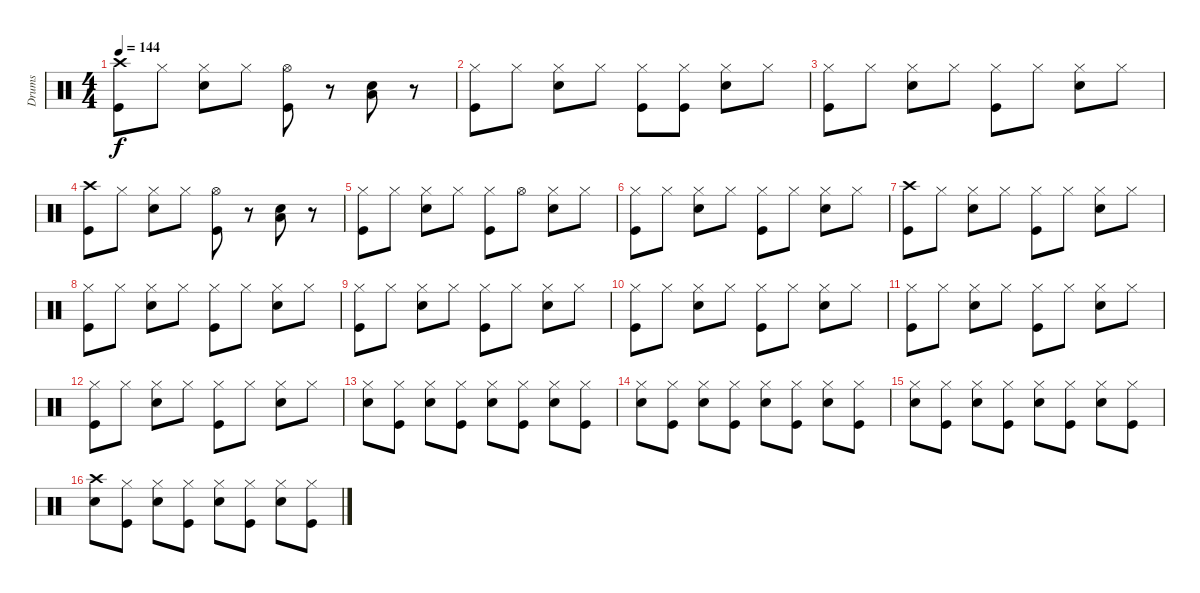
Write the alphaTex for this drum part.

\track ("Drums" "Drums") {instrument percussion}
\staff {score}
\articulation defaults
\ts (4 4)
\tempo 144
\clef neutral
\ks c
("Crash high (hit)" "Kick (hit)").8{dy f} "Hi-Hat (closed)".8 ("Hi-Hat (closed)" "Snare (hit) 2").8 "Hi-Hat (closed)".8 ("Hi-Hat (open)" "Kick (hit)").8 r.8 ("Snare (hit) 2" "Low Floor Tom (hit)").8 r.8 |
("Hi-Hat (closed)" "Kick (hit)").8 "Hi-Hat (closed)".8 ("Hi-Hat (closed)" "Snare (hit) 2").8 "Hi-Hat (closed)".8 ("Hi-Hat (closed)" "Kick (hit)").8 ("Hi-Hat (closed)" "Kick (hit)").8 ("Hi-Hat (closed)" "Snare (hit) 2").8 "Hi-Hat (closed)".8 |
("Hi-Hat (closed)" "Kick (hit)").8 "Hi-Hat (closed)".8 ("Hi-Hat (closed)" "Snare (hit) 2").8 "Hi-Hat (closed)".8 ("Hi-Hat (closed)" "Kick (hit)").8 "Hi-Hat (closed)".8 ("Hi-Hat (closed)" "Snare (hit) 2").8 "Hi-Hat (closed)".8 |
("Crash high (hit)" "Kick (hit)").8 "Hi-Hat (closed)".8 ("Hi-Hat (closed)" "Snare (hit) 2").8 "Hi-Hat (closed)".8 ("Hi-Hat (open)" "Kick (hit)").8 r.8 ("Snare (hit) 2" "Low Floor Tom (hit)").8 r.8 |
("Hi-Hat (closed)" "Kick (hit)").8 "Hi-Hat (closed)".8 ("Hi-Hat (closed)" "Snare (hit) 2").8 "Hi-Hat (closed)".8 ("Hi-Hat (closed)" "Kick (hit)").8 "Hi-Hat (open)".8 ("Hi-Hat (closed)" "Snare (hit) 2").8 "Hi-Hat (closed)".8 |
("Hi-Hat (closed)" "Kick (hit)").8 "Hi-Hat (closed)".8 ("Hi-Hat (closed)" "Snare (hit) 2").8 "Hi-Hat (closed)".8 ("Hi-Hat (closed)" "Kick (hit)").8 "Hi-Hat (closed)".8 ("Hi-Hat (closed)" "Snare (hit) 2").8 "Hi-Hat (closed)".8 |
("Crash high (hit)" "Kick (hit)").8 "Hi-Hat (closed)".8 ("Hi-Hat (closed)" "Snare (hit) 2").8 "Hi-Hat (closed)".8 ("Hi-Hat (closed)" "Kick (hit)").8 "Hi-Hat (closed)".8 ("Hi-Hat (closed)" "Snare (hit) 2").8 "Hi-Hat (closed)".8 |
("Hi-Hat (closed)" "Kick (hit)").8 "Hi-Hat (closed)".8 ("Hi-Hat (closed)" "Snare (hit) 2").8 "Hi-Hat (closed)".8 ("Hi-Hat (closed)" "Kick (hit)").8 "Hi-Hat (closed)".8 ("Hi-Hat (closed)" "Snare (hit) 2").8 "Hi-Hat (closed)".8 |
("Hi-Hat (closed)" "Kick (hit)").8 "Hi-Hat (closed)".8 ("Hi-Hat (closed)" "Snare (hit) 2").8 "Hi-Hat (closed)".8 ("Hi-Hat (closed)" "Kick (hit)").8 "Hi-Hat (closed)".8 ("Hi-Hat (closed)" "Snare (hit) 2").8 "Hi-Hat (closed)".8 |
("Hi-Hat (closed)" "Kick (hit)").8 "Hi-Hat (closed)".8 ("Hi-Hat (closed)" "Snare (hit) 2").8 "Hi-Hat (closed)".8 ("Hi-Hat (closed)" "Kick (hit)").8 "Hi-Hat (closed)".8 ("Hi-Hat (closed)" "Snare (hit) 2").8 "Hi-Hat (closed)".8 |
("Hi-Hat (closed)" "Kick (hit)").8 "Hi-Hat (closed)".8 ("Hi-Hat (closed)" "Snare (hit) 2").8 "Hi-Hat (closed)".8 ("Hi-Hat (closed)" "Kick (hit)").8 "Hi-Hat (closed)".8 ("Hi-Hat (closed)" "Snare (hit) 2").8 "Hi-Hat (closed)".8 |
("Hi-Hat (closed)" "Kick (hit)").8 "Hi-Hat (closed)".8 ("Hi-Hat (closed)" "Snare (hit) 2").8 "Hi-Hat (closed)".8 ("Hi-Hat (closed)" "Kick (hit)").8 "Hi-Hat (closed)".8 ("Hi-Hat (closed)" "Snare (hit) 2").8 "Hi-Hat (closed)".8 |
("Hi-Hat (closed)" "Snare (hit) 2").8 ("Hi-Hat (closed)" "Kick (hit)").8 ("Hi-Hat (closed)" "Snare (hit) 2").8 ("Hi-Hat (closed)" "Kick (hit)").8 ("Hi-Hat (closed)" "Snare (hit) 2").8 ("Hi-Hat (closed)" "Kick (hit)").8 ("Hi-Hat (closed)" "Snare (hit) 2").8 ("Hi-Hat (closed)" "Kick (hit)").8 |
("Hi-Hat (closed)" "Snare (hit) 2").8 ("Hi-Hat (closed)" "Kick (hit)").8 ("Hi-Hat (closed)" "Snare (hit) 2").8 ("Hi-Hat (closed)" "Kick (hit)").8 ("Hi-Hat (closed)" "Snare (hit) 2").8 ("Hi-Hat (closed)" "Kick (hit)").8 ("Hi-Hat (closed)" "Snare (hit) 2").8 ("Hi-Hat (closed)" "Kick (hit)").8 |
("Hi-Hat (closed)" "Snare (hit) 2").8 ("Hi-Hat (closed)" "Kick (hit)").8 ("Hi-Hat (closed)" "Snare (hit) 2").8 ("Hi-Hat (closed)" "Kick (hit)").8 ("Hi-Hat (closed)" "Snare (hit) 2").8 ("Hi-Hat (closed)" "Kick (hit)").8 ("Hi-Hat (closed)" "Snare (hit) 2").8 ("Hi-Hat (closed)" "Kick (hit)").8 |
("Crash high (hit)" "Snare (hit) 2").8 ("Hi-Hat (closed)" "Kick (hit)").8 ("Hi-Hat (closed)" "Snare (hit) 2").8 ("Hi-Hat (closed)" "Kick (hit)").8 ("Hi-Hat (closed)" "Snare (hit) 2").8 ("Hi-Hat (closed)" "Kick (hit)").8 ("Hi-Hat (closed)" "Snare (hit) 2").8 ("Hi-Hat (closed)" "Kick (hit)").8
